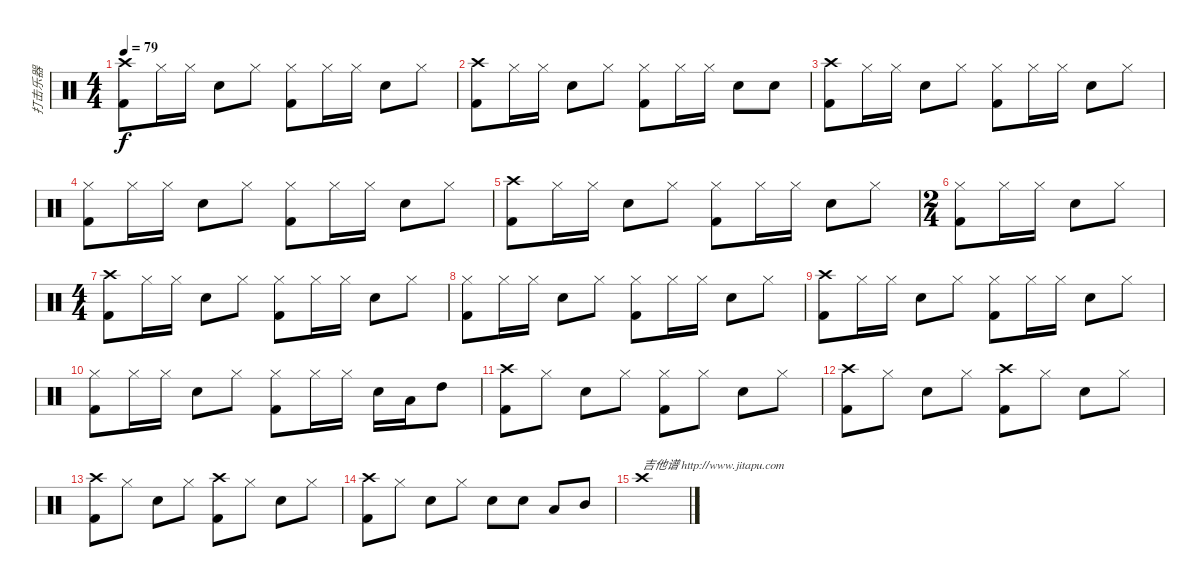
\track ("打击乐器" "打击乐器") {instrument percussion}
\staff {score}
\articulation defaults
\ts (4 4)
\tempo 79
\clef neutral
\ks c
("Crash high (hit)" "Kick (hit) 2").8{dy f} "Hi-Hat (closed)".16 "Hi-Hat (closed)".16 "Electric Snare (hit)".8 "Hi-Hat (closed)".8 ("Hi-Hat (closed)" "Kick (hit) 2").8 "Hi-Hat (closed)".16 "Hi-Hat (closed)".16 "Electric Snare (hit)".8 "Hi-Hat (closed)".8 |
("Crash high (hit)" "Kick (hit) 2").8 "Hi-Hat (closed)".16 "Hi-Hat (closed)".16 "Electric Snare (hit)".8 "Hi-Hat (closed)".8 ("Hi-Hat (closed)" "Kick (hit) 2").8 "Hi-Hat (closed)".16 "Hi-Hat (closed)".16 "Electric Snare (hit)".8 "Electric Snare (hit)".8 |
("Crash high (hit)" "Kick (hit) 2").8 "Hi-Hat (closed)".16 "Hi-Hat (closed)".16 "Electric Snare (hit)".8 "Hi-Hat (closed)".8 ("Hi-Hat (closed)" "Kick (hit) 2").8 "Hi-Hat (closed)".16 "Hi-Hat (closed)".16 "Electric Snare (hit)".8 "Hi-Hat (closed)".8 |
("Hi-Hat (closed)" "Kick (hit) 2").8 "Hi-Hat (closed)".16 "Hi-Hat (closed)".16 "Electric Snare (hit)".8 "Hi-Hat (closed)".8 ("Hi-Hat (closed)" "Kick (hit) 2").8 "Hi-Hat (closed)".16 "Hi-Hat (closed)".16 "Electric Snare (hit)".8 "Hi-Hat (closed)".8 |
("Crash high (hit)" "Kick (hit) 2").8 "Hi-Hat (closed)".16 "Hi-Hat (closed)".16 "Electric Snare (hit)".8 "Hi-Hat (closed)".8 ("Hi-Hat (closed)" "Kick (hit) 2").8 "Hi-Hat (closed)".16 "Hi-Hat (closed)".16 "Electric Snare (hit)".8 "Hi-Hat (closed)".8 |
\ts (2 4)
("Hi-Hat (closed)" "Kick (hit) 2").8 "Hi-Hat (closed)".16 "Hi-Hat (closed)".16 "Electric Snare (hit)".8 "Hi-Hat (closed)".8 |
\ts (4 4)
("Crash high (hit)" "Kick (hit) 2").8 "Hi-Hat (closed)".16 "Hi-Hat (closed)".16 "Electric Snare (hit)".8 "Hi-Hat (closed)".8 ("Hi-Hat (closed)" "Kick (hit) 2").8 "Hi-Hat (closed)".16 "Hi-Hat (closed)".16 "Electric Snare (hit)".8 "Hi-Hat (closed)".8 |
("Hi-Hat (closed)" "Kick (hit) 2").8 "Hi-Hat (closed)".16 "Hi-Hat (closed)".16 "Electric Snare (hit)".8 "Hi-Hat (closed)".8 ("Hi-Hat (closed)" "Kick (hit) 2").8 "Hi-Hat (closed)".16 "Hi-Hat (closed)".16 "Electric Snare (hit)".8 "Hi-Hat (closed)".8 |
("Crash high (hit)" "Kick (hit) 2").8 "Hi-Hat (closed)".16 "Hi-Hat (closed)".16 "Electric Snare (hit)".8 "Hi-Hat (closed)".8 ("Hi-Hat (closed)" "Kick (hit) 2").8 "Hi-Hat (closed)".16 "Hi-Hat (closed)".16 "Electric Snare (hit)".8 "Hi-Hat (closed)".8 |
("Hi-Hat (closed)" "Kick (hit) 2").8 "Hi-Hat (closed)".16 "Hi-Hat (closed)".16 "Electric Snare (hit)".8 "Hi-Hat (closed)".8 ("Hi-Hat (closed)" "Kick (hit) 2").8 "Hi-Hat (closed)".16 "Hi-Hat (closed)".16 "Electric Snare (hit)".16 "Low Tom (hit)".16 "High Tom (hit)".8 |
("Crash high (hit)" "Kick (hit) 2").8 "Hi-Hat (closed)".8 "Electric Snare (hit)".8 "Hi-Hat (closed)".8 ("Hi-Hat (closed)" "Kick (hit) 2").8 "Hi-Hat (closed)".8 "Electric Snare (hit)".8 "Hi-Hat (closed)".8 |
("Crash high (hit)" "Kick (hit) 2").8 "Hi-Hat (closed)".8 "Electric Snare (hit)".8 "Hi-Hat (closed)".8 ("Crash high (hit)" "Kick (hit) 2").8 "Hi-Hat (closed)".8 "Electric Snare (hit)".8 "Hi-Hat (closed)".8 |
("Crash high (hit)" "Kick (hit) 2").8 "Hi-Hat (closed)".8 "Electric Snare (hit)".8 "Hi-Hat (closed)".8 ("Crash high (hit)" "Kick (hit) 2").8 "Hi-Hat (closed)".8 "Electric Snare (hit)".8 "Hi-Hat (closed)".8 |
("Crash high (hit)" "Kick (hit) 2").8 "Hi-Hat (closed)".8 "Electric Snare (hit)".8 "Hi-Hat (closed)".8 "Electric Snare (hit)".8 "Electric Snare (hit)".8 "Low Tom (hit)".8 "Mid Tom (hit)".8 |
"Crash high (hit)".1{txt "吉他谱 http://www.jitapu.com"}
